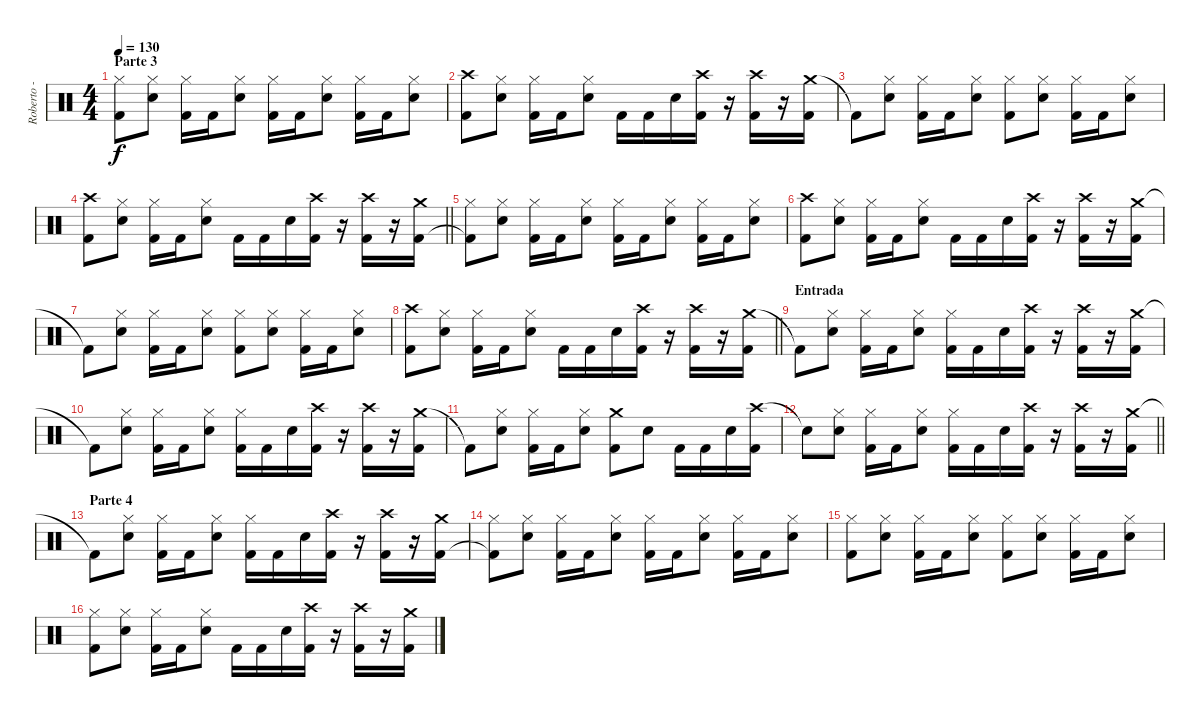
\track ("Roberto - Bateria" "Roberto - ") {instrument percussion}
\staff {score}
\articulation defaults
\ts (4 4)
\section ("" "Parte 3")
\tempo 130
\clef neutral
\ks c
("Hi-Hat (closed)" "Kick (hit) 2"{t}).8{dy f} ("Hi-Hat (closed)" "Snare (hit) 2").8 ("Hi-Hat (closed)" "Kick (hit) 2").16 "Kick (hit) 2".16 ("Hi-Hat (closed)" "Snare (hit) 2").8 ("Hi-Hat (closed)" "Kick (hit) 2").16 "Kick (hit) 2".16 ("Hi-Hat (closed)" "Snare (hit) 2").8 ("Hi-Hat (closed)" "Kick (hit) 2").16 "Kick (hit) 2".16 ("Hi-Hat (closed)" "Snare (hit) 2").8 |
("Crash high (hit)" "Kick (hit) 2").8 ("Hi-Hat (closed)" "Snare (hit) 2").8 ("Hi-Hat (closed)" "Kick (hit) 2").16 "Kick (hit) 2".16 ("Hi-Hat (closed)" "Snare (hit) 2").8 "Kick (hit) 2".16 "Kick (hit) 2".16 "Snare (hit) 2".16 ("Crash high (hit)" "Kick (hit) 2").16 r.16 ("Crash high (hit)" "Kick (hit) 2").16 r.16 ("Crash medium (hit)" "Kick (hit) 2").16 |
"Kick (hit) 2"{t}.8 ("Hi-Hat (closed)" "Snare (hit) 2").8 ("Hi-Hat (closed)" "Kick (hit) 2").16 "Kick (hit) 2".16 ("Hi-Hat (closed)" "Snare (hit) 2").8 ("Hi-Hat (closed)" "Kick (hit) 2").8 ("Hi-Hat (closed)" "Snare (hit) 2").8 ("Hi-Hat (closed)" "Kick (hit) 2").16 "Kick (hit) 2".16 ("Hi-Hat (closed)" "Snare (hit) 2").8 |
\barLineRight lightlight
("Crash high (hit)" "Kick (hit) 2").8 ("Hi-Hat (closed)" "Snare (hit) 2").8 ("Hi-Hat (closed)" "Kick (hit) 2").16 "Kick (hit) 2".16 ("Hi-Hat (closed)" "Snare (hit) 2").8 "Kick (hit) 2".16 "Kick (hit) 2".16 "Snare (hit) 2".16 ("Crash high (hit)" "Kick (hit) 2").16 r.16 ("Crash high (hit)" "Kick (hit) 2").16 r.16 ("Crash medium (hit)" "Kick (hit) 2").16 |
("Hi-Hat (closed)" "Kick (hit) 2"{t}).8 ("Hi-Hat (closed)" "Snare (hit) 2").8 ("Hi-Hat (closed)" "Kick (hit) 2").16 "Kick (hit) 2".16 ("Hi-Hat (closed)" "Snare (hit) 2").8 ("Hi-Hat (closed)" "Kick (hit) 2").16 "Kick (hit) 2".16 ("Hi-Hat (closed)" "Snare (hit) 2").8 ("Hi-Hat (closed)" "Kick (hit) 2").16 "Kick (hit) 2".16 ("Hi-Hat (closed)" "Snare (hit) 2").8 |
("Crash high (hit)" "Kick (hit) 2").8 ("Hi-Hat (closed)" "Snare (hit) 2").8 ("Hi-Hat (closed)" "Kick (hit) 2").16 "Kick (hit) 2".16 ("Hi-Hat (closed)" "Snare (hit) 2").8 "Kick (hit) 2".16 "Kick (hit) 2".16 "Snare (hit) 2".16 ("Crash high (hit)" "Kick (hit) 2").16 r.16 ("Crash high (hit)" "Kick (hit) 2").16 r.16 ("Crash medium (hit)" "Kick (hit) 2").16 |
"Kick (hit) 2"{t}.8 ("Hi-Hat (closed)" "Snare (hit) 2").8 ("Hi-Hat (closed)" "Kick (hit) 2").16 "Kick (hit) 2".16 ("Hi-Hat (closed)" "Snare (hit) 2").8 ("Hi-Hat (closed)" "Kick (hit) 2").8 ("Hi-Hat (closed)" "Snare (hit) 2").8 ("Hi-Hat (closed)" "Kick (hit) 2").16 "Kick (hit) 2".16 ("Hi-Hat (closed)" "Snare (hit) 2").8 |
\barLineRight lightlight
("Crash high (hit)" "Kick (hit) 2").8 ("Hi-Hat (closed)" "Snare (hit) 2").8 ("Hi-Hat (closed)" "Kick (hit) 2").16 "Kick (hit) 2".16 ("Hi-Hat (closed)" "Snare (hit) 2").8 "Kick (hit) 2".16 "Kick (hit) 2".16 "Snare (hit) 2".16 ("Crash high (hit)" "Kick (hit) 2").16 r.16 ("Crash high (hit)" "Kick (hit) 2").16 r.16 ("Crash medium (hit)" "Kick (hit) 2").16 |
\section ("" "Entrada")
"Kick (hit) 2"{t}.8 ("Hi-Hat (closed)" "Snare (hit) 2").8 ("Hi-Hat (closed)" "Kick (hit) 2").16 "Kick (hit) 2".16 ("Hi-Hat (closed)" "Snare (hit) 2").8 ("Hi-Hat (closed)" "Kick (hit) 2").16 "Kick (hit) 2".16 "Snare (hit) 2".16 ("Crash high (hit)" "Kick (hit) 2").16 r.16 ("Crash high (hit)" "Kick (hit) 2").16 r.16 ("Crash medium (hit)" "Kick (hit) 2").16 |
"Kick (hit) 2"{t}.8 ("Hi-Hat (closed)" "Snare (hit) 2").8 ("Hi-Hat (closed)" "Kick (hit) 2").16 "Kick (hit) 2".16 ("Hi-Hat (closed)" "Snare (hit) 2").8 ("Hi-Hat (closed)" "Kick (hit) 2").16 "Kick (hit) 2".16 "Snare (hit) 2".16 ("Crash high (hit)" "Kick (hit) 2").16 r.16 ("Crash high (hit)" "Kick (hit) 2").16 r.16 ("Crash medium (hit)" "Kick (hit) 2").16 |
"Kick (hit) 2"{t}.8 ("Hi-Hat (closed)" "Snare (hit) 2").8 ("Hi-Hat (closed)" "Kick (hit) 2").16 "Kick (hit) 2".16 ("Hi-Hat (closed)" "Snare (hit) 2").8 ("Crash medium (hit)" "Kick (hit) 2").8 "Snare (hit) 2".8 "Kick (hit) 2".16 "Kick (hit) 2".16 "Snare (hit) 2".16 ("Crash high (hit)" "Kick (hit) 2").16 |
\barLineRight lightlight "Snare (hit)"{t}.8
("Hi-Hat (closed)" "Snare (hit) 2").8 ("Hi-Hat (closed)" "Kick (hit) 2").16 "Kick (hit) 2".16 ("Hi-Hat (closed)" "Snare (hit) 2").8 ("Hi-Hat (closed)" "Kick (hit) 2").16 "Kick (hit) 2".16 "Snare (hit) 2".16 ("Crash high (hit)" "Kick (hit) 2").16 r.16 ("Crash high (hit)" "Kick (hit) 2").16 r.16 ("Crash medium (hit)" "Kick (hit) 2").16 |
\section ("" "Parte 4")
"Kick (hit) 2"{t}.8 ("Hi-Hat (closed)" "Snare (hit) 2").8 ("Hi-Hat (closed)" "Kick (hit) 2").16 "Kick (hit) 2".16 ("Hi-Hat (closed)" "Snare (hit) 2").8 ("Hi-Hat (closed)" "Kick (hit) 2").16 "Kick (hit) 2".16 "Snare (hit) 2".16 ("Crash high (hit)" "Kick (hit) 2").16 r.16 ("Crash high (hit)" "Kick (hit) 2").16 r.16 ("Crash medium (hit)" "Kick (hit) 2").16 |
("Hi-Hat (closed)" "Kick (hit) 2"{t}).8 ("Hi-Hat (closed)" "Snare (hit) 2").8 ("Hi-Hat (closed)" "Kick (hit) 2").16 "Kick (hit) 2".16 ("Hi-Hat (closed)" "Snare (hit) 2").8 ("Hi-Hat (closed)" "Kick (hit) 2").16 "Kick (hit) 2".16 ("Hi-Hat (closed)" "Snare (hit) 2").8 ("Hi-Hat (closed)" "Kick (hit) 2").16 "Kick (hit) 2".16 ("Hi-Hat (closed)" "Snare (hit) 2").8 |
("Hi-Hat (closed)" "Kick (hit) 2").8 ("Hi-Hat (closed)" "Snare (hit) 2").8 ("Hi-Hat (closed)" "Kick (hit) 2").16 "Kick (hit) 2".16 ("Hi-Hat (closed)" "Snare (hit) 2").8 ("Hi-Hat (closed)" "Kick (hit) 2").8 ("Hi-Hat (closed)" "Snare (hit) 2").8 ("Hi-Hat (closed)" "Kick (hit) 2").16 "Kick (hit) 2".16 ("Hi-Hat (closed)" "Snare (hit) 2").8 |
("Hi-Hat (closed)" "Kick (hit) 2").8 ("Hi-Hat (closed)" "Snare (hit) 2").8 ("Hi-Hat (closed)" "Kick (hit) 2").16 "Kick (hit) 2".16 ("Hi-Hat (closed)" "Snare (hit) 2").8 "Kick (hit) 2".16 "Kick (hit) 2".16 "Snare (hit) 2".16 ("Crash high (hit)" "Kick (hit) 2").16 r.16 ("Crash high (hit)" "Kick (hit) 2").16 r.16 ("Crash medium (hit)" "Kick (hit) 2").16
